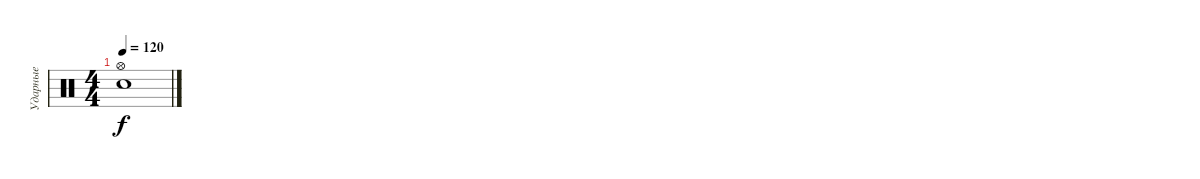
\track ("Ударные" "Ударные") {instrument percussion}
\staff {score}
\articulation defaults
\ts (4 4)
\tempo 120
\clef neutral
\ks c
("Electric Snare (hit)" "Hi-Hat (open)").1{dy f}
